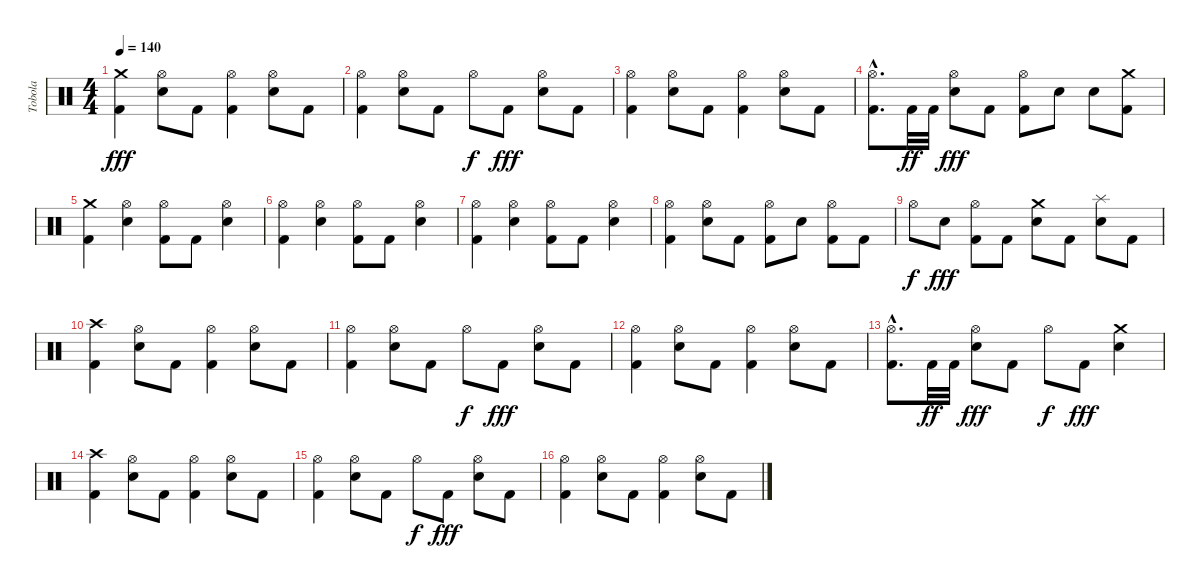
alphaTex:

\track ("Tobola" "Tobola") {instrument percussion}
\staff {score}
\articulation defaults
\ts (4 4)
\tempo 140
\clef neutral
\ks c
("Crash medium (hit)" "Kick (hit) 2").4{dy fff} ("Hi-Hat (open)" "Snare (hit) 2").8 "Kick (hit) 2".8 ("Hi-Hat (open)" "Kick (hit) 2").4 ("Hi-Hat (open)" "Snare (hit) 2").8 "Kick (hit) 2".8 |
("Hi-Hat (open)" "Kick (hit) 2").4 ("Hi-Hat (open)" "Snare (hit) 2").8 "Kick (hit) 2".8 "Hi-Hat (open)".8{dy f} "Kick (hit) 2".8{dy fff} ("Hi-Hat (open)" "Snare (hit) 2").8 "Kick (hit) 2".8 |
("Hi-Hat (open)" "Kick (hit) 2").4 ("Hi-Hat (open)" "Snare (hit) 2").8 "Kick (hit) 2".8 ("Hi-Hat (open)" "Kick (hit) 2").4 ("Hi-Hat (open)" "Snare (hit) 2").8 "Kick (hit) 2".8 |
("Hi-Hat (open)"{hac} "Kick (hit) 2"{hac}).8{d} "Kick (hit) 2".32{dy ff} "Kick (hit) 2".32 ("Hi-Hat (open)" "Snare (hit) 2").8{dy fff} "Kick (hit) 2".8 ("Hi-Hat (open)" "Kick (hit) 2").8 "Snare (hit) 2".8 "Snare (hit) 2".8 ("Crash medium (hit)" "Kick (hit) 2").8 |
("Crash medium (hit)" "Kick (hit) 2").4 ("Hi-Hat (open)" "Snare (hit) 2").4 ("Hi-Hat (open)" "Kick (hit) 2").8 "Kick (hit) 2".8 ("Hi-Hat (open)" "Snare (hit) 2").4 |
("Hi-Hat (open)" "Kick (hit) 2").4 ("Hi-Hat (open)" "Snare (hit) 2").4 ("Hi-Hat (open)" "Kick (hit) 2").8 "Kick (hit) 2".8 ("Hi-Hat (open)" "Snare (hit) 2").4 |
("Hi-Hat (open)" "Kick (hit) 2").4 ("Hi-Hat (open)" "Snare (hit) 2").4 ("Hi-Hat (open)" "Kick (hit) 2").8 "Kick (hit) 2".8 ("Hi-Hat (open)" "Snare (hit) 2").4 |
("Hi-Hat (open)" "Kick (hit) 2").4 ("Hi-Hat (open)" "Snare (hit) 2").8 "Kick (hit) 2".8 ("Hi-Hat (open)" "Kick (hit) 2").8 "Snare (hit) 2".8 ("Hi-Hat (open)" "Kick (hit) 2").8 "Kick (hit) 2".8 |
"Hi-Hat (open)".8{dy f} "Snare (hit) 2".8{dy fff} ("Hi-Hat (open)" "Kick (hit) 2").8 "Kick (hit) 2".8 ("Crash medium (hit)" "Snare (hit) 2").8 "Kick (hit) 2".8 ("Splash (hit)" "Snare (hit) 2").8 "Kick (hit) 2".8 |
("Crash high (hit)" "Kick (hit) 2").4 ("Hi-Hat (open)" "Snare (hit) 2").8 "Kick (hit) 2".8 ("Hi-Hat (open)" "Kick (hit) 2").4 ("Hi-Hat (open)" "Snare (hit) 2").8 "Kick (hit) 2".8 |
("Hi-Hat (open)" "Kick (hit) 2").4 ("Hi-Hat (open)" "Snare (hit) 2").8 "Kick (hit) 2".8 "Hi-Hat (open)".8{dy f} "Kick (hit) 2".8{dy fff} ("Hi-Hat (open)" "Snare (hit) 2").8 "Kick (hit) 2".8 |
("Hi-Hat (open)" "Kick (hit) 2").4 ("Hi-Hat (open)" "Snare (hit) 2").8 "Kick (hit) 2".8 ("Hi-Hat (open)" "Kick (hit) 2").4 ("Hi-Hat (open)" "Snare (hit) 2").8 "Kick (hit) 2".8 |
("Hi-Hat (open)"{hac} "Kick (hit) 2"{hac}).8{d} "Kick (hit) 2".32{dy ff} "Kick (hit) 2".32 ("Hi-Hat (open)" "Snare (hit) 2").8{dy fff} "Kick (hit) 2".8 "Hi-Hat (open)".8{dy f} "Kick (hit) 2".8{dy fff} ("Crash medium (hit)" "Snare (hit) 2").4 |
("Crash high (hit)" "Kick (hit) 2").4 ("Hi-Hat (open)" "Snare (hit) 2").8 "Kick (hit) 2".8 ("Hi-Hat (open)" "Kick (hit) 2").4 ("Hi-Hat (open)" "Snare (hit) 2").8 "Kick (hit) 2".8 |
("Hi-Hat (open)" "Kick (hit) 2").4 ("Hi-Hat (open)" "Snare (hit) 2").8 "Kick (hit) 2".8 "Hi-Hat (open)".8{dy f} "Kick (hit) 2".8{dy fff} ("Hi-Hat (open)" "Snare (hit) 2").8 "Kick (hit) 2".8 |
("Hi-Hat (open)" "Kick (hit) 2").4 ("Hi-Hat (open)" "Snare (hit) 2").8 "Kick (hit) 2".8 ("Hi-Hat (open)" "Kick (hit) 2").4 ("Hi-Hat (open)" "Snare (hit) 2").8 "Kick (hit) 2".8
